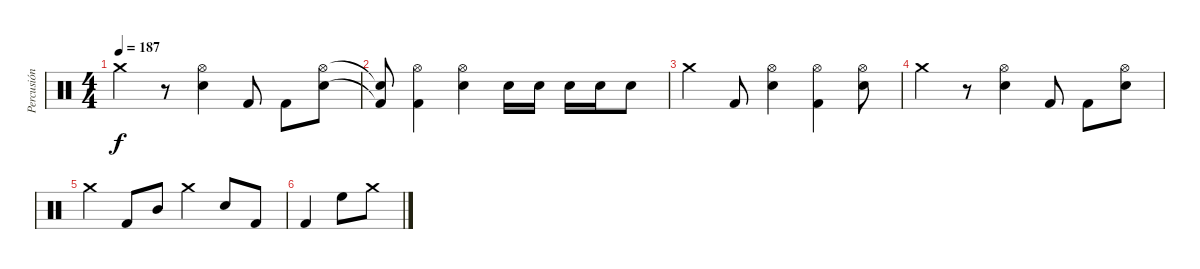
\track ("Percusión" "Percusión") {instrument percussion}
\staff {score}
\articulation defaults
\ts (4 4)
\tempo 187
\clef neutral
\ks c "Crash medium (hit)".4{dy f}
r.8 ("Hi-Hat (open)" "Snare (hit) 2").4 "Kick (hit) 2".8 "Kick (hit) 2".8 ("Hi-Hat (open)" "Snare (hit) 2").8 |
("Snare (hit)"{t} "Kick (hit) 2"{t}).8 ("Hi-Hat (open)" "Kick (hit) 2").4 ("Hi-Hat (open)" "Snare (hit) 2").4 "Snare (hit) 2".16 "Snare (hit) 2".16 "Snare (hit) 2".16 "Snare (hit) 2".16 "Snare (hit) 2".8 |
"Crash medium (hit)".4 "Kick (hit) 2".8 ("Hi-Hat (open)" "Snare (hit) 2").4 ("Hi-Hat (open)" "Kick (hit) 2").4 ("Hi-Hat (open)" "Snare (hit) 2").8 |
"Crash medium (hit)".4 r.8 ("Hi-Hat (open)" "Snare (hit) 2").4 "Kick (hit) 2".8 "Kick (hit) 2".8 ("Hi-Hat (open)" "Snare (hit) 2").8 |
"Crash medium (hit)".4 "Kick (hit) 2".8 "Mid Tom (hit)".8 "Crash medium (hit)".4 "Snare (hit) 2".8 "Kick (hit) 2".8 |
"Kick (hit) 2".4 "High Floor Tom (hit)".8 "Crash medium (hit)".8
